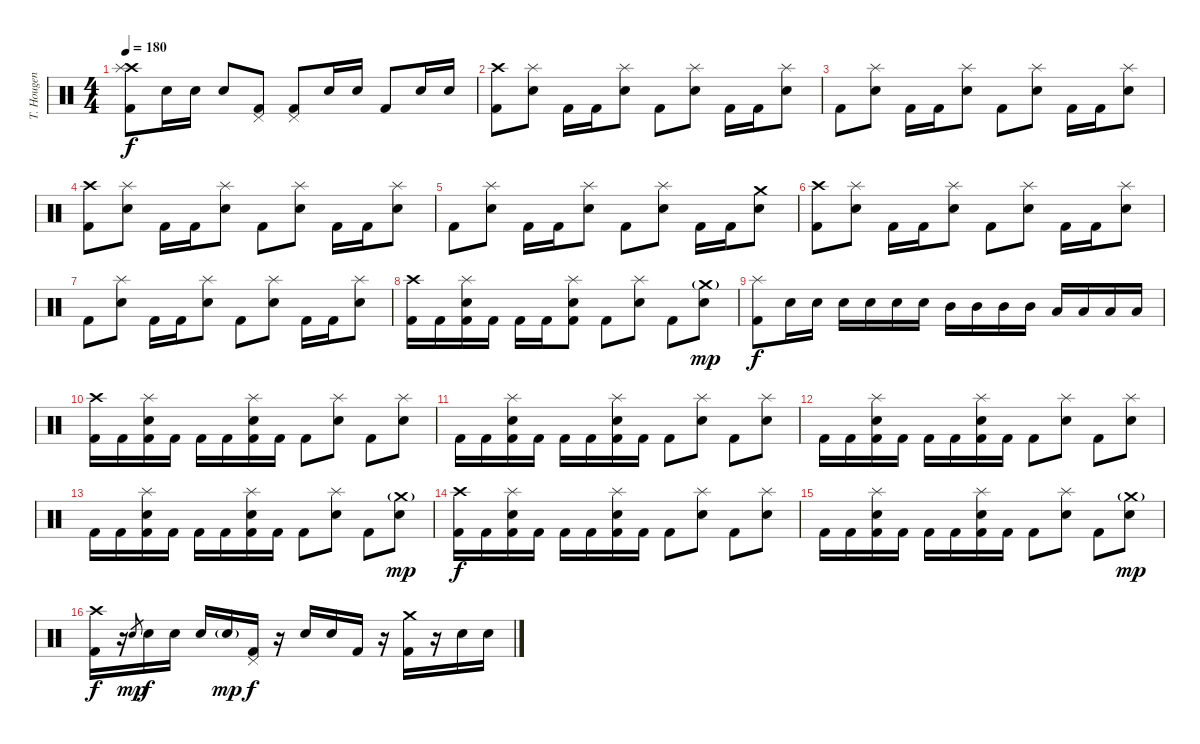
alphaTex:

\track ("T. Hougen - Drums" "T. Hougen ") {instrument percussion}
\staff {score}
\articulation defaults
\ts (4 4)
\tempo 180
\clef neutral
\ks c
("Crash high (hit)" "Splash (hit)" "Kick (hit) 2").8{dy f} "Electric Snare (hit)".16 "Electric Snare (hit)".16 "Electric Snare (hit)".8 ("Pedal Hi-Hat (hit)" "Kick (hit) 2").8 ("Pedal Hi-Hat (hit)" "Kick (hit) 2").8 "Electric Snare (hit)".16 "Electric Snare (hit)".16 "Kick (hit) 2".8 "Electric Snare (hit)".16 "Electric Snare (hit)".16 |
("Crash high (hit)" "Kick (hit) 2").8 ("Splash (hit)" "Electric Snare (hit)").8 "Kick (hit) 2".16 "Kick (hit) 2".16 ("Splash (hit)" "Electric Snare (hit)").8 "Kick (hit) 2".8 ("Splash (hit)" "Electric Snare (hit)").8 "Kick (hit) 2".16 "Kick (hit) 2".16 ("Splash (hit)" "Electric Snare (hit)").8 |
"Kick (hit) 2".8 ("Splash (hit)" "Electric Snare (hit)").8 "Kick (hit) 2".16 "Kick (hit) 2".16 ("Splash (hit)" "Electric Snare (hit)").8 "Kick (hit) 2".8 ("Splash (hit)" "Electric Snare (hit)").8 "Kick (hit) 2".16 "Kick (hit) 2".16 ("Splash (hit)" "Electric Snare (hit)").8 |
("Crash high (hit)" "Kick (hit) 2").8 ("Splash (hit)" "Electric Snare (hit)").8 "Kick (hit) 2".16 "Kick (hit) 2".16 ("Splash (hit)" "Electric Snare (hit)").8 "Kick (hit) 2".8 ("Splash (hit)" "Electric Snare (hit)").8 "Kick (hit) 2".16 "Kick (hit) 2".16 ("Splash (hit)" "Electric Snare (hit)").8 |
"Kick (hit) 2".8 ("Splash (hit)" "Electric Snare (hit)").8 "Kick (hit) 2".16 "Kick (hit) 2".16 ("Splash (hit)" "Electric Snare (hit)").8 "Kick (hit) 2".8 ("Splash (hit)" "Electric Snare (hit)").8 "Kick (hit) 2".16 "Kick (hit) 2".16 ("Crash medium (hit)" "Electric Snare (hit)").8 |
("Crash high (hit)" "Kick (hit) 2").8 ("Splash (hit)" "Electric Snare (hit)").8 "Kick (hit) 2".16 "Kick (hit) 2".16 ("Splash (hit)" "Electric Snare (hit)").8 "Kick (hit) 2".8 ("Splash (hit)" "Electric Snare (hit)").8 "Kick (hit) 2".16 "Kick (hit) 2".16 ("Splash (hit)" "Electric Snare (hit)").8 |
"Kick (hit) 2".8 ("Splash (hit)" "Electric Snare (hit)").8 "Kick (hit) 2".16 "Kick (hit) 2".16 ("Splash (hit)" "Electric Snare (hit)").8 "Kick (hit) 2".8 ("Splash (hit)" "Electric Snare (hit)").8 "Kick (hit) 2".16 "Kick (hit) 2".16 ("Splash (hit)" "Electric Snare (hit)").8 |
("Crash high (hit)" "Kick (hit) 2").16 "Kick (hit) 2".16 ("Splash (hit)" "Electric Snare (hit)" "Kick (hit) 2").16 "Kick (hit) 2".16 "Kick (hit) 2".16 "Kick (hit) 2".16 ("Splash (hit)" "Electric Snare (hit)" "Kick (hit) 2").8 "Kick (hit) 2".8 ("Splash (hit)" "Electric Snare (hit)").8 "Kick (hit) 2".8 ("Crash medium (hit)"{g} "Electric Snare (hit)").8{dy mp} |
("Splash (hit)" "Kick (hit) 2").8{dy f} "Electric Snare (hit)".16 "Electric Snare (hit)".16 "Electric Snare (hit)".16 "Electric Snare (hit)".16 "Electric Snare (hit)".16 "Electric Snare (hit)".16 "Mid Tom (hit)".16 "Mid Tom (hit)".16 "Mid Tom (hit)".16 "Mid Tom (hit)".16 "Low Tom (hit)".16 "Low Tom (hit)".16 "Low Tom (hit)".16 "Low Tom (hit)".16 |
("Crash high (hit)" "Kick (hit) 2").16 "Kick (hit) 2".16 ("Splash (hit)" "Electric Snare (hit)" "Kick (hit) 2").16 "Kick (hit) 2".16 "Kick (hit) 2".16 "Kick (hit) 2".16 ("Splash (hit)" "Electric Snare (hit)" "Kick (hit) 2").16 "Kick (hit) 2".16 "Kick (hit) 2".8 ("Splash (hit)" "Electric Snare (hit)").8 "Kick (hit) 2".8 ("Splash (hit)" "Electric Snare (hit)").8 |
"Kick (hit) 2".16 "Kick (hit) 2".16 ("Splash (hit)" "Electric Snare (hit)" "Kick (hit) 2").16 "Kick (hit) 2".16 "Kick (hit) 2".16 "Kick (hit) 2".16 ("Splash (hit)" "Electric Snare (hit)" "Kick (hit) 2").16 "Kick (hit) 2".16 "Kick (hit) 2".8 ("Splash (hit)" "Electric Snare (hit)").8 "Kick (hit) 2".8 ("Splash (hit)" "Electric Snare (hit)").8 |
"Kick (hit) 2".16 "Kick (hit) 2".16 ("Splash (hit)" "Electric Snare (hit)" "Kick (hit) 2").16 "Kick (hit) 2".16 "Kick (hit) 2".16 "Kick (hit) 2".16 ("Splash (hit)" "Electric Snare (hit)" "Kick (hit) 2").16 "Kick (hit) 2".16 "Kick (hit) 2".8 ("Splash (hit)" "Electric Snare (hit)").8 "Kick (hit) 2".8 ("Splash (hit)" "Electric Snare (hit)").8 |
"Kick (hit) 2".16 "Kick (hit) 2".16 ("Splash (hit)" "Electric Snare (hit)" "Kick (hit) 2").16 "Kick (hit) 2".16 "Kick (hit) 2".16 "Kick (hit) 2".16 ("Splash (hit)" "Electric Snare (hit)" "Kick (hit) 2").16 "Kick (hit) 2".16 "Kick (hit) 2".8 ("Splash (hit)" "Electric Snare (hit)").8 "Kick (hit) 2".8 ("Crash medium (hit)"{g} "Electric Snare (hit)").8{dy mp} |
("Crash high (hit)" "Kick (hit) 2").16{dy f} "Kick (hit) 2".16 ("Splash (hit)" "Electric Snare (hit)" "Kick (hit) 2").16 "Kick (hit) 2".16 "Kick (hit) 2".16 "Kick (hit) 2".16 ("Splash (hit)" "Electric Snare (hit)" "Kick (hit) 2").16 "Kick (hit) 2".16 "Kick (hit) 2".8 ("Splash (hit)" "Electric Snare (hit)").8 "Kick (hit) 2".8 ("Splash (hit)" "Electric Snare (hit)").8 |
"Kick (hit) 2".16 "Kick (hit) 2".16 ("Splash (hit)" "Electric Snare (hit)" "Kick (hit) 2").16 "Kick (hit) 2".16 "Kick (hit) 2".16 "Kick (hit) 2".16 ("Splash (hit)" "Electric Snare (hit)" "Kick (hit) 2").16 "Kick (hit) 2".16 "Kick (hit) 2".8 ("Splash (hit)" "Electric Snare (hit)").8 "Kick (hit) 2".8 ("Crash medium (hit)"{g} "Electric Snare (hit)").8{dy mp} |
("Crash high (hit)" "Kick (hit) 2").16{dy f} r.16 "Electric Snare (hit)".8{gr dy mp} "Electric Snare (hit)".16{dy f} "Electric Snare (hit)".16 "Electric Snare (hit)".16 "Electric Snare (hit)"{g}.16{dy mp} ("Pedal Hi-Hat (hit)" "Kick (hit) 2").16{dy f} r.16 "Electric Snare (hit)".16 "Electric Snare (hit)".16 "Kick (hit) 2".16 r.16 ("Crash medium (hit)" "Kick (hit) 2").16 r.16 "Electric Snare (hit)".16 "Electric Snare (hit)".16
